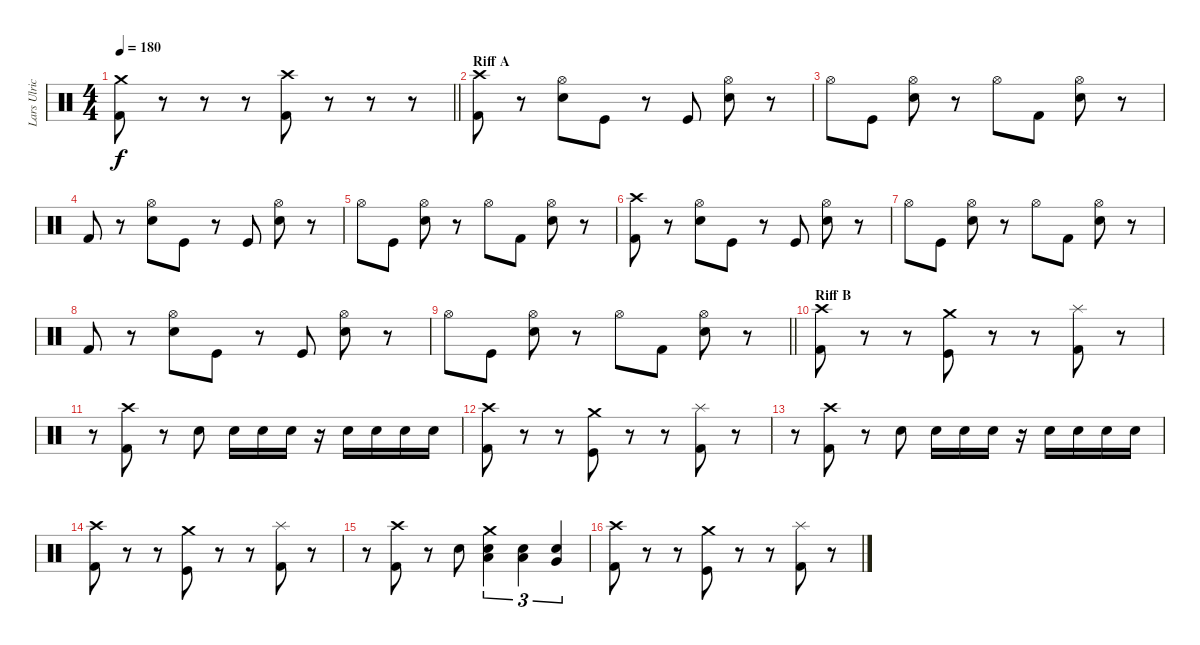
\track ("Lars Ulrich" "Lars Ulric") {instrument percussion}
\staff {score}
\articulation defaults
\ts (4 4)
\tempo 180
\clef neutral
\barLineRight lightlight
\ks c
("Crash medium (hit)" "Kick (hit) 2").8{dy f} r.8 r.8 r.8 ("Crash high (hit)" "Kick (hit) 2").8 r.8 r.8 r.8 |
\section ("" "Riff A")
("Crash high (hit)" "Kick (hit) 2").8 r.8 ("Hi-Hat (open)" "Electric Snare (hit)").8 "Kick (hit)".8 r.8 "Kick (hit)".8 ("Hi-Hat (open)" "Electric Snare (hit)").8 r.8 |
"Hi-Hat (open)".8 "Kick (hit)".8 ("Hi-Hat (open)" "Electric Snare (hit)").8 r.8 "Hi-Hat (open)".8 "Kick (hit) 2".8 ("Hi-Hat (open)" "Electric Snare (hit)").8 r.8 |
"Kick (hit) 2".8 r.8 ("Hi-Hat (open)" "Electric Snare (hit)").8 "Kick (hit)".8 r.8 "Kick (hit)".8 ("Hi-Hat (open)" "Electric Snare (hit)").8 r.8 |
"Hi-Hat (open)".8 "Kick (hit)".8 ("Hi-Hat (open)" "Electric Snare (hit)").8 r.8 "Hi-Hat (open)".8 "Kick (hit) 2".8 ("Hi-Hat (open)" "Electric Snare (hit)").8 r.8 |
("Crash high (hit)" "Kick (hit) 2").8 r.8 ("Hi-Hat (open)" "Electric Snare (hit)").8 "Kick (hit)".8 r.8 "Kick (hit)".8 ("Hi-Hat (open)" "Electric Snare (hit)").8 r.8 |
"Hi-Hat (open)".8 "Kick (hit)".8 ("Hi-Hat (open)" "Electric Snare (hit)").8 r.8 "Hi-Hat (open)".8 "Kick (hit) 2".8 ("Hi-Hat (open)" "Electric Snare (hit)").8 r.8 |
"Kick (hit) 2".8 r.8 ("Hi-Hat (open)" "Electric Snare (hit)").8 "Kick (hit)".8 r.8 "Kick (hit)".8 ("Hi-Hat (open)" "Electric Snare (hit)").8 r.8 |
\barLineRight lightlight "Hi-Hat (open)".8 "Kick (hit)".8
("Hi-Hat (open)" "Electric Snare (hit)").8 r.8 "Hi-Hat (open)".8 "Kick (hit) 2".8 ("Hi-Hat (open)" "Electric Snare (hit)").8 r.8 |
\section ("" "Riff B")
("Crash high (hit)" "Kick (hit) 2").8 r.8 r.8 ("Crash medium (hit)" "Kick (hit)").8 r.8 r.8 ("Splash (hit)" "Kick (hit) 2").8 r.8 |
r.8 ("Crash high (hit)" "Kick (hit) 2").8 r.8 "Electric Snare (hit)".8 "Electric Snare (hit)".16 "Electric Snare (hit)".16 "Electric Snare (hit)".16 r.16 "Electric Snare (hit)".16 "Electric Snare (hit)".16 "Electric Snare (hit)".16 "Electric Snare (hit)".16 |
("Crash high (hit)" "Kick (hit) 2").8 r.8 r.8 ("Crash medium (hit)" "Kick (hit)").8 r.8 r.8 ("Splash (hit)" "Kick (hit) 2").8 r.8 |
r.8 ("Crash high (hit)" "Kick (hit) 2").8 r.8 "Electric Snare (hit)".8 "Electric Snare (hit)".16 "Electric Snare (hit)".16 "Electric Snare (hit)".16 r.16 "Electric Snare (hit)".16 "Electric Snare (hit)".16 "Electric Snare (hit)".16 "Electric Snare (hit)".16 |
("Crash high (hit)" "Kick (hit) 2").8 r.8 r.8 ("Crash medium (hit)" "Kick (hit)").8 r.8 r.8 ("Splash (hit)" "Kick (hit) 2").8 r.8 |
r.8 ("Crash high (hit)" "Kick (hit) 2").8 r.8 "Electric Snare (hit)".8 ("Low Tom (hit)" "Crash medium (hit)" "Electric Snare (hit)").4{tu (3 2)} ("Low Tom (hit)" "Electric Snare (hit)").4{tu (3 2)} ("Very Low Tom (hit)" "Electric Snare (hit)").4{tu (3 2)} |
("Crash high (hit)" "Kick (hit) 2").8 r.8 r.8 ("Crash medium (hit)" "Kick (hit)").8 r.8 r.8 ("Splash (hit)" "Kick (hit) 2").8 r.8
